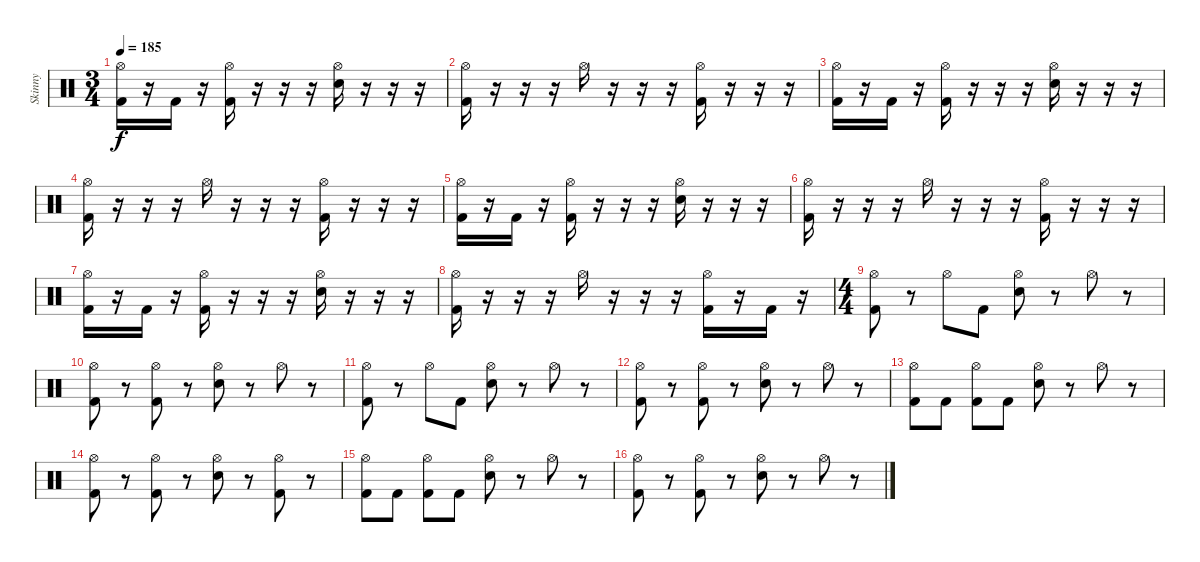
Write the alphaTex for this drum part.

\track ("Skinny" "Skinny") {instrument percussion}
\staff {score}
\articulation defaults
\ts (3 4)
\tempo 185
\clef neutral
\ks c
("Hi-Hat (open)" "Kick (hit) 2").16{dy f} r.16 "Kick (hit) 2".16 r.16 ("Hi-Hat (open)" "Kick (hit) 2").16 r.16 r.16 r.16 ("Hi-Hat (open)" "Snare (hit) 2").16 r.16 r.16 r.16 |
("Hi-Hat (open)" "Kick (hit) 2").16 r.16 r.16 r.16 "Hi-Hat (open)".16 r.16 r.16 r.16 ("Hi-Hat (open)" "Kick (hit) 2").16 r.16 r.16 r.16 |
("Hi-Hat (open)" "Kick (hit) 2").16 r.16 "Kick (hit) 2".16 r.16 ("Hi-Hat (open)" "Kick (hit) 2").16 r.16 r.16 r.16 ("Hi-Hat (open)" "Snare (hit) 2").16 r.16 r.16 r.16 |
("Hi-Hat (open)" "Kick (hit) 2").16 r.16 r.16 r.16 "Hi-Hat (open)".16 r.16 r.16 r.16 ("Hi-Hat (open)" "Kick (hit) 2").16 r.16 r.16 r.16 |
("Hi-Hat (open)" "Kick (hit) 2").16 r.16 "Kick (hit) 2".16 r.16 ("Hi-Hat (open)" "Kick (hit) 2").16 r.16 r.16 r.16 ("Hi-Hat (open)" "Snare (hit) 2").16 r.16 r.16 r.16 |
("Hi-Hat (open)" "Kick (hit) 2").16 r.16 r.16 r.16 "Hi-Hat (open)".16 r.16 r.16 r.16 ("Hi-Hat (open)" "Kick (hit) 2").16 r.16 r.16 r.16 |
("Hi-Hat (open)" "Kick (hit) 2").16 r.16 "Kick (hit) 2".16 r.16 ("Hi-Hat (open)" "Kick (hit) 2").16 r.16 r.16 r.16 ("Hi-Hat (open)" "Snare (hit) 2").16 r.16 r.16 r.16 |
("Hi-Hat (open)" "Kick (hit) 2").16 r.16 r.16 r.16 "Hi-Hat (open)".16 r.16 r.16 r.16 ("Hi-Hat (open)" "Kick (hit) 2").16 r.16 "Kick (hit) 2".16 r.16 |
\ts (4 4)
("Hi-Hat (open)" "Kick (hit) 2").8 r.8 "Hi-Hat (open)".8 "Kick (hit) 2".8 ("Hi-Hat (open)" "Snare (hit) 2").8 r.8 "Hi-Hat (open)".8 r.8 |
("Hi-Hat (open)" "Kick (hit) 2").8 r.8 ("Hi-Hat (open)" "Kick (hit) 2").8 r.8 ("Hi-Hat (open)" "Snare (hit) 2").8 r.8 "Hi-Hat (open)".8 r.8 |
("Hi-Hat (open)" "Kick (hit) 2").8 r.8 "Hi-Hat (open)".8 "Kick (hit) 2".8 ("Hi-Hat (open)" "Snare (hit) 2").8 r.8 "Hi-Hat (open)".8 r.8 |
("Hi-Hat (open)" "Kick (hit) 2").8 r.8 ("Hi-Hat (open)" "Kick (hit) 2").8 r.8 ("Hi-Hat (open)" "Snare (hit) 2").8 r.8 "Hi-Hat (open)".8 r.8 |
("Hi-Hat (open)" "Kick (hit) 2").8 "Kick (hit) 2".8 ("Hi-Hat (open)" "Kick (hit) 2").8 "Kick (hit) 2".8 ("Hi-Hat (open)" "Snare (hit) 2").8 r.8 "Hi-Hat (open)".8 r.8 |
("Hi-Hat (open)" "Kick (hit) 2").8 r.8 ("Hi-Hat (open)" "Kick (hit) 2").8 r.8 ("Hi-Hat (open)" "Snare (hit) 2").8 r.8 ("Hi-Hat (open)" "Kick (hit) 2").8 r.8 |
("Hi-Hat (open)" "Kick (hit) 2").8 "Kick (hit) 2".8 ("Hi-Hat (open)" "Kick (hit) 2").8 "Kick (hit) 2".8 ("Hi-Hat (open)" "Snare (hit) 2").8 r.8 "Hi-Hat (open)".8 r.8 |
("Hi-Hat (open)" "Kick (hit) 2").8 r.8 ("Hi-Hat (open)" "Kick (hit) 2").8 r.8 ("Hi-Hat (open)" "Snare (hit) 2").8 r.8 "Hi-Hat (open)".8 r.8
